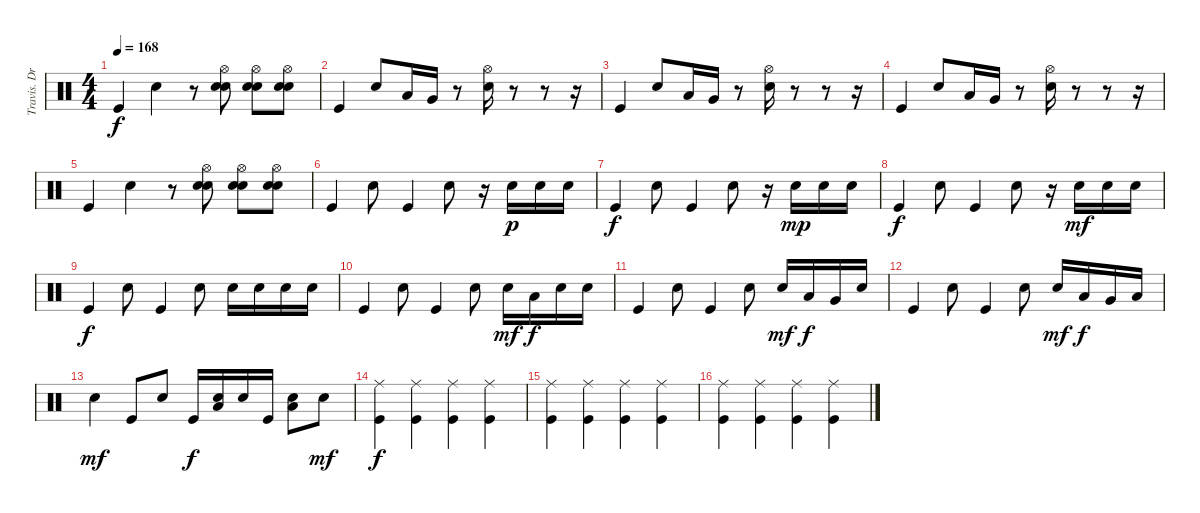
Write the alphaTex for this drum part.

\track ("Travis. Drums" "Travis. Dr") {instrument percussion}
\staff {score}
\articulation defaults
\ts (4 4)
\tempo 168
\clef neutral
\ks c "Kick (hit)".4{dy f} "Snare (hit) 2".4
r.8 ("Hi-Hat (open)" "Hand Clap (hit)" "Snare (hit) 2").8 ("Hi-Hat (open)" "Hand Clap (hit)" "Snare (hit) 2").8 ("Hi-Hat (open)" "Hand Clap (hit)" "Snare (hit) 2").8 |
"Kick (hit)".4 "Snare (hit) 2".8 "Low Tom (hit)".16 "Very Low Tom (hit)".16 r.8 ("Hi-Hat (open)" "Snare (hit) 2").16 r.8 r.8 r.16 |
"Kick (hit)".4 "Snare (hit) 2".8 "Low Tom (hit)".16 "Very Low Tom (hit)".16 r.8 ("Hi-Hat (open)" "Snare (hit) 2").16 r.8 r.8 r.16 |
"Kick (hit)".4 "Snare (hit) 2".8 "Low Tom (hit)".16 "Very Low Tom (hit)".16 r.8 ("Hi-Hat (open)" "Snare (hit) 2").16 r.8 r.8 r.16 |
"Kick (hit)".4 "Snare (hit) 2".4 r.8 ("Hi-Hat (open)" "Hand Clap (hit)" "Snare (hit) 2").8 ("Hi-Hat (open)" "Hand Clap (hit)" "Snare (hit) 2").8 ("Hi-Hat (open)" "Hand Clap (hit)" "Snare (hit) 2").8 |
"Kick (hit)".4 "Snare (hit) 2".8 "Kick (hit)".4 "Snare (hit) 2".8 r.16 "Snare (hit) 2".16{dy p} "Snare (hit) 2".16 "Snare (hit) 2".16 |
"Kick (hit)".4{dy f} "Snare (hit) 2".8 "Kick (hit)".4 "Snare (hit) 2".8 r.16 "Snare (hit) 2".16{dy mp} "Snare (hit) 2".16 "Snare (hit) 2".16 |
"Kick (hit)".4{dy f} "Snare (hit) 2".8 "Kick (hit)".4 "Snare (hit) 2".8 r.16 "Snare (hit) 2".16{dy mf} "Snare (hit) 2".16 "Snare (hit) 2".16 |
"Kick (hit)".4{dy f} "Snare (hit) 2".8 "Kick (hit)".4 "Snare (hit) 2".8 "Snare (hit) 2".16 "Snare (hit) 2".16 "Snare (hit) 2".16 "Snare (hit) 2".16 |
"Kick (hit)".4 "Snare (hit) 2".8 "Kick (hit)".4 "Snare (hit) 2".8 "Snare (hit) 2".16{dy mf} "Low Tom (hit)".16{dy f} "Snare (hit) 2".16 "Snare (hit) 2".16 |
"Kick (hit)".4 "Snare (hit) 2".8 "Kick (hit)".4 "Snare (hit) 2".8 "Snare (hit) 2".16{dy mf} "Low Tom (hit)".16{dy f} "Very Low Tom (hit)".16 "Snare (hit) 2".16 |
"Kick (hit)".4 "Snare (hit) 2".8 "Kick (hit)".4 "Snare (hit) 2".8 "Snare (hit) 2".16{dy mf} "Low Tom (hit)".16{dy f} "Very Low Tom (hit)".16 "Low Floor Tom (hit)".16 |
"Snare (hit) 2".4{dy mf} "Kick (hit)".8 "Snare (hit) 2".8 "Kick (hit)".16{dy f} ("Low Tom (hit)" "Snare (hit) 2").16 "Snare (hit) 2".16 "Kick (hit)".16 ("Low Tom (hit)" "Snare (hit) 2").8 "Snare (hit) 2".8{dy mf} |
("Ride (middle)" "Kick (hit)").4{dy f} ("Ride (middle)" "Kick (hit)").4 ("Ride (middle)" "Kick (hit)").4 ("Ride (middle)" "Kick (hit)").4 |
("Ride (middle)" "Kick (hit)").4 ("Ride (middle)" "Kick (hit)").4 ("Ride (middle)" "Kick (hit)").4 ("Ride (middle)" "Kick (hit)").4 |
("Ride (middle)" "Kick (hit)").4 ("Ride (middle)" "Kick (hit)").4 ("Ride (middle)" "Kick (hit)").4 ("Ride (middle)" "Kick (hit)").4
